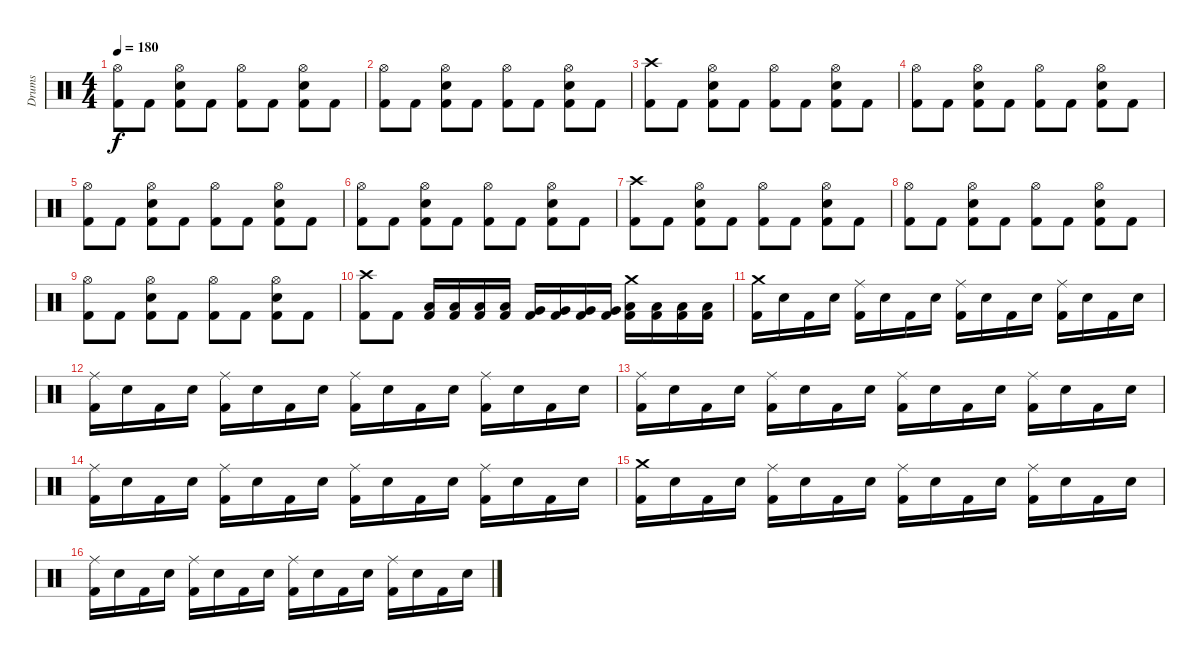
\track ("Drums" "Drums") {instrument percussion}
\staff {score}
\articulation defaults
\ts (4 4)
\tempo 180
\clef neutral
\ks c
("Hi-Hat (open)" "Kick (hit) 2").8{dy f} "Kick (hit) 2".8 ("Hi-Hat (open)" "Electric Snare (hit)" "Kick (hit) 2").8 "Kick (hit) 2".8 ("Hi-Hat (open)" "Kick (hit) 2").8 "Kick (hit) 2".8 ("Hi-Hat (open)" "Electric Snare (hit)" "Kick (hit) 2").8 "Kick (hit) 2".8 |
("Hi-Hat (open)" "Kick (hit) 2").8 "Kick (hit) 2".8 ("Hi-Hat (open)" "Electric Snare (hit)" "Kick (hit) 2").8 "Kick (hit) 2".8 ("Hi-Hat (open)" "Kick (hit) 2").8 "Kick (hit) 2".8 ("Hi-Hat (open)" "Electric Snare (hit)" "Kick (hit) 2").8 "Kick (hit) 2".8 |
("Crash high (hit)" "Kick (hit) 2").8 "Kick (hit) 2".8 ("Hi-Hat (open)" "Electric Snare (hit)" "Kick (hit) 2").8 "Kick (hit) 2".8 ("Hi-Hat (open)" "Kick (hit) 2").8 "Kick (hit) 2".8 ("Hi-Hat (open)" "Electric Snare (hit)" "Kick (hit) 2").8 "Kick (hit) 2".8 |
("Hi-Hat (open)" "Kick (hit) 2").8 "Kick (hit) 2".8 ("Hi-Hat (open)" "Electric Snare (hit)" "Kick (hit) 2").8 "Kick (hit) 2".8 ("Hi-Hat (open)" "Kick (hit) 2").8 "Kick (hit) 2".8 ("Hi-Hat (open)" "Electric Snare (hit)" "Kick (hit) 2").8 "Kick (hit) 2".8 |
("Hi-Hat (open)" "Kick (hit) 2").8 "Kick (hit) 2".8 ("Hi-Hat (open)" "Electric Snare (hit)" "Kick (hit) 2").8 "Kick (hit) 2".8 ("Hi-Hat (open)" "Kick (hit) 2").8 "Kick (hit) 2".8 ("Hi-Hat (open)" "Electric Snare (hit)" "Kick (hit) 2").8 "Kick (hit) 2".8 |
("Hi-Hat (open)" "Kick (hit) 2").8 "Kick (hit) 2".8 ("Hi-Hat (open)" "Electric Snare (hit)" "Kick (hit) 2").8 "Kick (hit) 2".8 ("Hi-Hat (open)" "Kick (hit) 2").8 "Kick (hit) 2".8 ("Hi-Hat (open)" "Electric Snare (hit)" "Kick (hit) 2").8 "Kick (hit) 2".8 |
("Crash high (hit)" "Kick (hit) 2").8 "Kick (hit) 2".8 ("Hi-Hat (open)" "Electric Snare (hit)" "Kick (hit) 2").8 "Kick (hit) 2".8 ("Hi-Hat (open)" "Kick (hit) 2").8 "Kick (hit) 2".8 ("Hi-Hat (open)" "Electric Snare (hit)" "Kick (hit) 2").8 "Kick (hit) 2".8 |
("Hi-Hat (open)" "Kick (hit) 2").8 "Kick (hit) 2".8 ("Hi-Hat (open)" "Electric Snare (hit)" "Kick (hit) 2").8 "Kick (hit) 2".8 ("Hi-Hat (open)" "Kick (hit) 2").8 "Kick (hit) 2".8 ("Hi-Hat (open)" "Electric Snare (hit)" "Kick (hit) 2").8 "Kick (hit) 2".8 |
("Hi-Hat (open)" "Kick (hit) 2").8 "Kick (hit) 2".8 ("Hi-Hat (open)" "Electric Snare (hit)" "Kick (hit) 2").8 "Kick (hit) 2".8 ("Hi-Hat (open)" "Kick (hit) 2").8 "Kick (hit) 2".8 ("Hi-Hat (open)" "Electric Snare (hit)" "Kick (hit) 2").8 "Kick (hit) 2".8 |
("Crash high (hit)" "Kick (hit) 2").8 "Kick (hit) 2".8 ("Low Tom (hit)" "Kick (hit) 2").16 ("Low Tom (hit)" "Kick (hit) 2").16 ("Low Tom (hit)" "Kick (hit) 2").16 ("Low Tom (hit)" "Kick (hit) 2").16 ("Very Low Tom (hit)" "Kick (hit) 2").16 ("Very Low Tom (hit)" "Kick (hit) 2").16 ("Very Low Tom (hit)" "Kick (hit) 2").16 ("Very Low Tom (hit)" "Kick (hit) 2").16 ("Crash medium (hit)" "Low Tom (hit)" "Kick (hit) 2").16 ("Low Tom (hit)" "Kick (hit) 2").16 ("Low Tom (hit)" "Kick (hit) 2").16 ("Low Tom (hit)" "Kick (hit) 2").16 |
("Crash medium (hit)" "Kick (hit) 2").16 "Electric Snare (hit)".16 "Kick (hit) 2".16 "Electric Snare (hit)".16 ("Ride (middle)" "Kick (hit) 2").16 "Electric Snare (hit)".16 "Kick (hit) 2".16 "Electric Snare (hit)".16 ("Ride (middle)" "Kick (hit) 2").16 "Electric Snare (hit)".16 "Kick (hit) 2".16 "Electric Snare (hit)".16 ("Ride (middle)" "Kick (hit) 2").16 "Electric Snare (hit)".16 "Kick (hit) 2".16 "Electric Snare (hit)".16 |
("Ride (middle)" "Kick (hit) 2").16 "Electric Snare (hit)".16 "Kick (hit) 2".16 "Electric Snare (hit)".16 ("Ride (middle)" "Kick (hit) 2").16 "Electric Snare (hit)".16 "Kick (hit) 2".16 "Electric Snare (hit)".16 ("Ride (middle)" "Kick (hit) 2").16 "Electric Snare (hit)".16 "Kick (hit) 2".16 "Electric Snare (hit)".16 ("Ride (middle)" "Kick (hit) 2").16 "Electric Snare (hit)".16 "Kick (hit) 2".16 "Electric Snare (hit)".16 |
("Ride (middle)" "Kick (hit) 2").16 "Electric Snare (hit)".16 "Kick (hit) 2".16 "Electric Snare (hit)".16 ("Ride (middle)" "Kick (hit) 2").16 "Electric Snare (hit)".16 "Kick (hit) 2".16 "Electric Snare (hit)".16 ("Ride (middle)" "Kick (hit) 2").16 "Electric Snare (hit)".16 "Kick (hit) 2".16 "Electric Snare (hit)".16 ("Ride (middle)" "Kick (hit) 2").16 "Electric Snare (hit)".16 "Kick (hit) 2".16 "Electric Snare (hit)".16 |
("Ride (middle)" "Kick (hit) 2").16 "Electric Snare (hit)".16 "Kick (hit) 2".16 "Electric Snare (hit)".16 ("Ride (middle)" "Kick (hit) 2").16 "Electric Snare (hit)".16 "Kick (hit) 2".16 "Electric Snare (hit)".16 ("Ride (middle)" "Kick (hit) 2").16 "Electric Snare (hit)".16 "Kick (hit) 2".16 "Electric Snare (hit)".16 ("Ride (middle)" "Kick (hit) 2").16 "Electric Snare (hit)".16 "Kick (hit) 2".16 "Electric Snare (hit)".16 |
("Crash medium (hit)" "Kick (hit) 2").16 "Electric Snare (hit)".16 "Kick (hit) 2".16 "Electric Snare (hit)".16 ("Ride (middle)" "Kick (hit) 2").16 "Electric Snare (hit)".16 "Kick (hit) 2".16 "Electric Snare (hit)".16 ("Ride (middle)" "Kick (hit) 2").16 "Electric Snare (hit)".16 "Kick (hit) 2".16 "Electric Snare (hit)".16 ("Ride (middle)" "Kick (hit) 2").16 "Electric Snare (hit)".16 "Kick (hit) 2".16 "Electric Snare (hit)".16 |
("Ride (middle)" "Kick (hit) 2").16 "Electric Snare (hit)".16 "Kick (hit) 2".16 "Electric Snare (hit)".16 ("Ride (middle)" "Kick (hit) 2").16 "Electric Snare (hit)".16 "Kick (hit) 2".16 "Electric Snare (hit)".16 ("Ride (middle)" "Kick (hit) 2").16 "Electric Snare (hit)".16 "Kick (hit) 2".16 "Electric Snare (hit)".16 ("Ride (middle)" "Kick (hit) 2").16 "Electric Snare (hit)".16 "Kick (hit) 2".16 "Electric Snare (hit)".16
